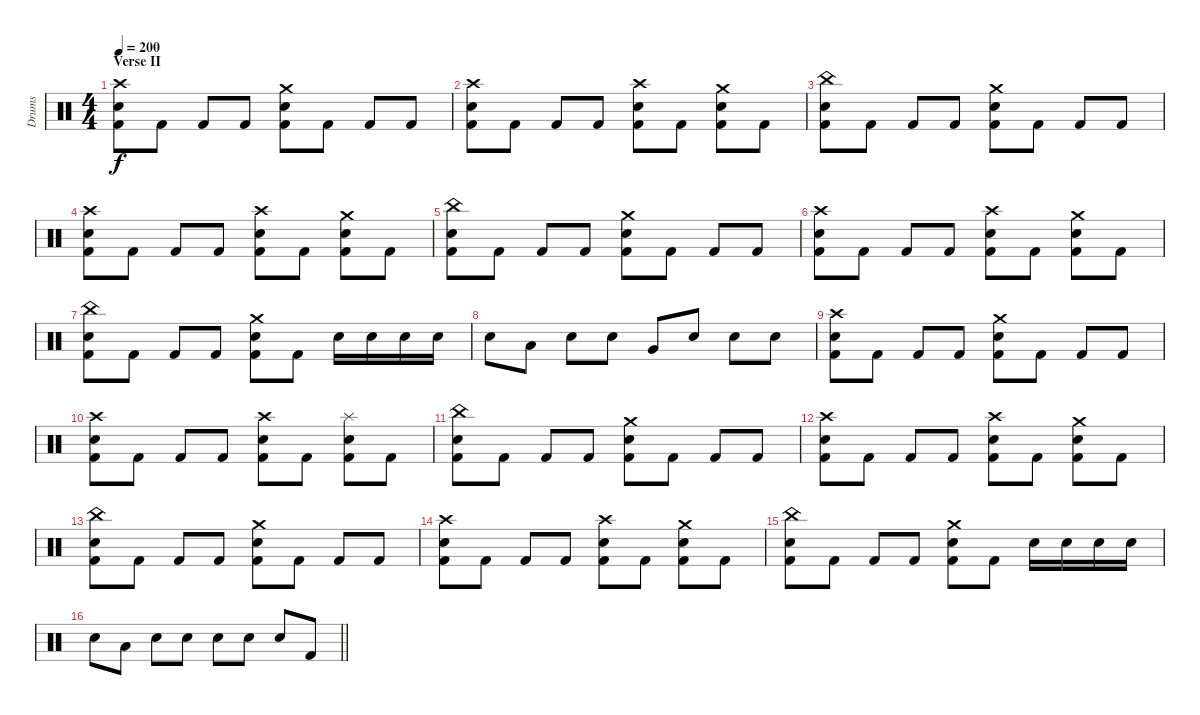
\track ("Drums" "Drums") {instrument percussion}
\staff {score}
\articulation defaults
\ts (4 4)
\section ("" "Verse II")
\tempo 200
\clef neutral
\ks c
("Crash high (hit)" "Electric Snare (hit)" "Kick (hit) 2").8{dy f} "Kick (hit) 2".8 "Kick (hit) 2".8 "Kick (hit) 2".8 ("Crash medium (hit)" "Electric Snare (hit)" "Kick (hit) 2").8 "Kick (hit) 2".8 "Kick (hit) 2".8 "Kick (hit) 2".8 |
("Crash high (hit)" "Electric Snare (hit)" "Kick (hit) 2").8 "Kick (hit) 2".8 "Kick (hit) 2".8 "Kick (hit) 2".8 ("Crash high (hit)" "Electric Snare (hit)" "Kick (hit) 2").8 "Kick (hit) 2".8 ("Crash medium (hit)" "Electric Snare (hit)" "Kick (hit) 2").8 "Kick (hit) 2".8 |
("China (hit)" "Electric Snare (hit)" "Kick (hit) 2").8 "Kick (hit) 2".8 "Kick (hit) 2".8 "Kick (hit) 2".8 ("Crash medium (hit)" "Electric Snare (hit)" "Kick (hit) 2").8 "Kick (hit) 2".8 "Kick (hit) 2".8 "Kick (hit) 2".8 |
("Crash high (hit)" "Electric Snare (hit)" "Kick (hit) 2").8 "Kick (hit) 2".8 "Kick (hit) 2".8 "Kick (hit) 2".8 ("Crash high (hit)" "Electric Snare (hit)" "Kick (hit) 2").8 "Kick (hit) 2".8 ("Crash medium (hit)" "Electric Snare (hit)" "Kick (hit) 2").8 "Kick (hit) 2".8 |
("China (hit)" "Electric Snare (hit)" "Kick (hit) 2").8 "Kick (hit) 2".8 "Kick (hit) 2".8 "Kick (hit) 2".8 ("Crash medium (hit)" "Electric Snare (hit)" "Kick (hit) 2").8 "Kick (hit) 2".8 "Kick (hit) 2".8 "Kick (hit) 2".8 |
("Crash high (hit)" "Electric Snare (hit)" "Kick (hit) 2").8 "Kick (hit) 2".8 "Kick (hit) 2".8 "Kick (hit) 2".8 ("Crash high (hit)" "Electric Snare (hit)" "Kick (hit) 2").8 "Kick (hit) 2".8 ("Crash medium (hit)" "Electric Snare (hit)" "Kick (hit) 2").8 "Kick (hit) 2".8 |
("China (hit)" "Electric Snare (hit)" "Kick (hit) 2").8 "Kick (hit) 2".8 "Kick (hit) 2".8 "Kick (hit) 2".8 ("Crash medium (hit)" "Electric Snare (hit)" "Kick (hit) 2").8 "Kick (hit) 2".8 "Electric Snare (hit)".16 "Electric Snare (hit)".16 "Electric Snare (hit)".16 "Electric Snare (hit)".16 |
"Electric Snare (hit)".8 "Low Tom (hit)".8 "Electric Snare (hit)".8 "Electric Snare (hit)".8 "Very Low Tom (hit)".8 "Electric Snare (hit)".8 "Electric Snare (hit)".8 "Electric Snare (hit)".8 |
("Crash high (hit)" "Electric Snare (hit)" "Kick (hit) 2").8 "Kick (hit) 2".8 "Kick (hit) 2".8 "Kick (hit) 2".8 ("Crash medium (hit)" "Electric Snare (hit)" "Kick (hit) 2").8 "Kick (hit) 2".8 "Kick (hit) 2".8 "Kick (hit) 2".8 |
("Crash high (hit)" "Electric Snare (hit)" "Kick (hit) 2").8 "Kick (hit) 2".8 "Kick (hit) 2".8 "Kick (hit) 2".8 ("Crash high (hit)" "Electric Snare (hit)" "Kick (hit) 2").8 "Kick (hit) 2".8 ("Splash (hit)" "Electric Snare (hit)" "Kick (hit) 2").8 "Kick (hit) 2".8 |
("China (hit)" "Electric Snare (hit)" "Kick (hit) 2").8 "Kick (hit) 2".8 "Kick (hit) 2".8 "Kick (hit) 2".8 ("Crash medium (hit)" "Electric Snare (hit)" "Kick (hit) 2").8 "Kick (hit) 2".8 "Kick (hit) 2".8 "Kick (hit) 2".8 |
("Crash high (hit)" "Electric Snare (hit)" "Kick (hit) 2").8 "Kick (hit) 2".8 "Kick (hit) 2".8 "Kick (hit) 2".8 ("Crash high (hit)" "Electric Snare (hit)" "Kick (hit) 2").8 "Kick (hit) 2".8 ("Crash medium (hit)" "Electric Snare (hit)" "Kick (hit) 2").8 "Kick (hit) 2".8 |
("China (hit)" "Electric Snare (hit)" "Kick (hit) 2").8 "Kick (hit) 2".8 "Kick (hit) 2".8 "Kick (hit) 2".8 ("Crash medium (hit)" "Electric Snare (hit)" "Kick (hit) 2").8 "Kick (hit) 2".8 "Kick (hit) 2".8 "Kick (hit) 2".8 |
("Crash high (hit)" "Electric Snare (hit)" "Kick (hit) 2").8 "Kick (hit) 2".8 "Kick (hit) 2".8 "Kick (hit) 2".8 ("Crash high (hit)" "Electric Snare (hit)" "Kick (hit) 2").8 "Kick (hit) 2".8 ("Crash medium (hit)" "Electric Snare (hit)" "Kick (hit) 2").8 "Kick (hit) 2".8 |
("China (hit)" "Electric Snare (hit)" "Kick (hit) 2").8 "Kick (hit) 2".8 "Kick (hit) 2".8 "Kick (hit) 2".8 ("Crash medium (hit)" "Electric Snare (hit)" "Kick (hit) 2").8 "Kick (hit) 2".8 "Electric Snare (hit)".16 "Electric Snare (hit)".16 "Electric Snare (hit)".16 "Electric Snare (hit)".16 |
\barLineRight lightlight "Electric Snare (hit)".8 "Low Tom (hit)".8 "Electric Snare (hit)".8 "Electric Snare (hit)".8 "Electric Snare (hit)".8 "Electric Snare (hit)".8 "Electric Snare (hit)".8 "Kick (hit) 2".8
